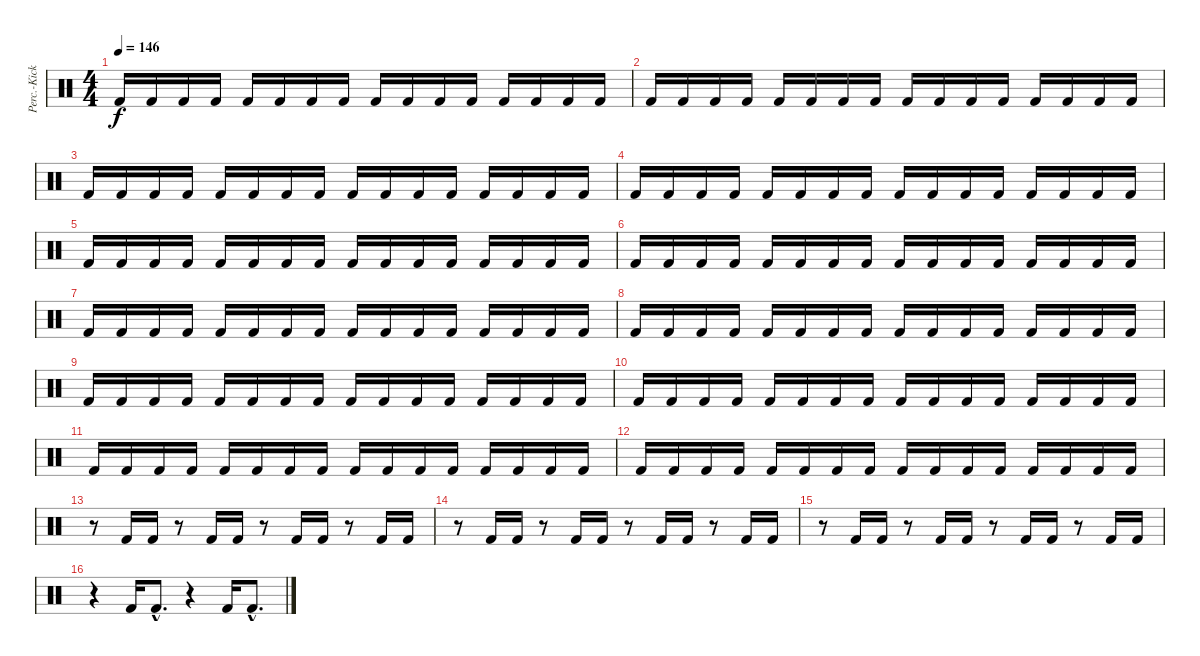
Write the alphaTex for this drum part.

\track ("Perc.-Kick" "Perc.-Kick") {instrument percussion}
\staff {score}
\articulation defaults
\ts (4 4)
\tempo 146
\clef neutral
\ks c "Kick (hit) 2".16{dy f} "Kick (hit) 2".16 "Kick (hit) 2".16 "Kick (hit) 2".16 "Kick (hit) 2".16 "Kick (hit) 2".16 "Kick (hit) 2".16 "Kick (hit) 2".16 "Kick (hit) 2".16 "Kick (hit) 2".16 "Kick (hit) 2".16 "Kick (hit) 2".16 "Kick (hit) 2".16 "Kick (hit) 2".16 "Kick (hit) 2".16 "Kick (hit) 2".16
|
"Kick (hit) 2".16 "Kick (hit) 2".16 "Kick (hit) 2".16 "Kick (hit) 2".16 "Kick (hit) 2".16 "Kick (hit) 2".16 "Kick (hit) 2".16 "Kick (hit) 2".16 "Kick (hit) 2".16 "Kick (hit) 2".16 "Kick (hit) 2".16 "Kick (hit) 2".16 "Kick (hit) 2".16 "Kick (hit) 2".16 "Kick (hit) 2".16 "Kick (hit) 2".16 |
"Kick (hit) 2".16 "Kick (hit) 2".16 "Kick (hit) 2".16 "Kick (hit) 2".16 "Kick (hit) 2".16 "Kick (hit) 2".16 "Kick (hit) 2".16 "Kick (hit) 2".16 "Kick (hit) 2".16 "Kick (hit) 2".16 "Kick (hit) 2".16 "Kick (hit) 2".16 "Kick (hit) 2".16 "Kick (hit) 2".16 "Kick (hit) 2".16 "Kick (hit) 2".16 |
"Kick (hit) 2".16 "Kick (hit) 2".16 "Kick (hit) 2".16 "Kick (hit) 2".16 "Kick (hit) 2".16 "Kick (hit) 2".16 "Kick (hit) 2".16 "Kick (hit) 2".16 "Kick (hit) 2".16 "Kick (hit) 2".16 "Kick (hit) 2".16 "Kick (hit) 2".16 "Kick (hit) 2".16 "Kick (hit) 2".16 "Kick (hit) 2".16 "Kick (hit) 2".16 |
"Kick (hit) 2".16 "Kick (hit) 2".16 "Kick (hit) 2".16 "Kick (hit) 2".16 "Kick (hit) 2".16 "Kick (hit) 2".16 "Kick (hit) 2".16 "Kick (hit) 2".16 "Kick (hit) 2".16 "Kick (hit) 2".16 "Kick (hit) 2".16 "Kick (hit) 2".16 "Kick (hit) 2".16 "Kick (hit) 2".16 "Kick (hit) 2".16 "Kick (hit) 2".16 |
"Kick (hit) 2".16 "Kick (hit) 2".16 "Kick (hit) 2".16 "Kick (hit) 2".16 "Kick (hit) 2".16 "Kick (hit) 2".16 "Kick (hit) 2".16 "Kick (hit) 2".16 "Kick (hit) 2".16 "Kick (hit) 2".16 "Kick (hit) 2".16 "Kick (hit) 2".16 "Kick (hit) 2".16 "Kick (hit) 2".16 "Kick (hit) 2".16 "Kick (hit) 2".16 |
"Kick (hit) 2".16 "Kick (hit) 2".16 "Kick (hit) 2".16 "Kick (hit) 2".16 "Kick (hit) 2".16 "Kick (hit) 2".16 "Kick (hit) 2".16 "Kick (hit) 2".16 "Kick (hit) 2".16 "Kick (hit) 2".16 "Kick (hit) 2".16 "Kick (hit) 2".16 "Kick (hit) 2".16 "Kick (hit) 2".16 "Kick (hit) 2".16 "Kick (hit) 2".16 |
"Kick (hit) 2".16 "Kick (hit) 2".16 "Kick (hit) 2".16 "Kick (hit) 2".16 "Kick (hit) 2".16 "Kick (hit) 2".16 "Kick (hit) 2".16 "Kick (hit) 2".16 "Kick (hit) 2".16 "Kick (hit) 2".16 "Kick (hit) 2".16 "Kick (hit) 2".16 "Kick (hit) 2".16 "Kick (hit) 2".16 "Kick (hit) 2".16 "Kick (hit) 2".16 |
"Kick (hit) 2".16 "Kick (hit) 2".16 "Kick (hit) 2".16 "Kick (hit) 2".16 "Kick (hit) 2".16 "Kick (hit) 2".16 "Kick (hit) 2".16 "Kick (hit) 2".16 "Kick (hit) 2".16 "Kick (hit) 2".16 "Kick (hit) 2".16 "Kick (hit) 2".16 "Kick (hit) 2".16 "Kick (hit) 2".16 "Kick (hit) 2".16 "Kick (hit) 2".16 |
"Kick (hit) 2".16 "Kick (hit) 2".16 "Kick (hit) 2".16 "Kick (hit) 2".16 "Kick (hit) 2".16 "Kick (hit) 2".16 "Kick (hit) 2".16 "Kick (hit) 2".16 "Kick (hit) 2".16 "Kick (hit) 2".16 "Kick (hit) 2".16 "Kick (hit) 2".16 "Kick (hit) 2".16 "Kick (hit) 2".16 "Kick (hit) 2".16 "Kick (hit) 2".16 |
"Kick (hit) 2".16 "Kick (hit) 2".16 "Kick (hit) 2".16 "Kick (hit) 2".16 "Kick (hit) 2".16 "Kick (hit) 2".16 "Kick (hit) 2".16 "Kick (hit) 2".16 "Kick (hit) 2".16 "Kick (hit) 2".16 "Kick (hit) 2".16 "Kick (hit) 2".16 "Kick (hit) 2".16 "Kick (hit) 2".16 "Kick (hit) 2".16 "Kick (hit) 2".16 |
"Kick (hit) 2".16 "Kick (hit) 2".16 "Kick (hit) 2".16 "Kick (hit) 2".16 "Kick (hit) 2".16 "Kick (hit) 2".16 "Kick (hit) 2".16 "Kick (hit) 2".16 "Kick (hit) 2".16 "Kick (hit) 2".16 "Kick (hit) 2".16 "Kick (hit) 2".16 "Kick (hit) 2".16 "Kick (hit) 2".16 "Kick (hit) 2".16 "Kick (hit) 2".16 |
r.8 "Kick (hit) 2".16 "Kick (hit) 2".16 r.8 "Kick (hit) 2".16 "Kick (hit) 2".16 r.8 "Kick (hit) 2".16 "Kick (hit) 2".16 r.8 "Kick (hit) 2".16 "Kick (hit) 2".16 |
r.8 "Kick (hit) 2".16 "Kick (hit) 2".16 r.8 "Kick (hit) 2".16 "Kick (hit) 2".16 r.8 "Kick (hit) 2".16 "Kick (hit) 2".16 r.8 "Kick (hit) 2".16 "Kick (hit) 2".16 |
r.8 "Kick (hit) 2".16 "Kick (hit) 2".16 r.8 "Kick (hit) 2".16 "Kick (hit) 2".16 r.8 "Kick (hit) 2".16 "Kick (hit) 2".16 r.8 "Kick (hit) 2".16 "Kick (hit) 2".16 |
r.4 "Kick (hit) 2".16 "Kick (hit) 2"{hac}.8{d} r.4 "Kick (hit) 2".16 "Kick (hit) 2"{hac}.8{d}
